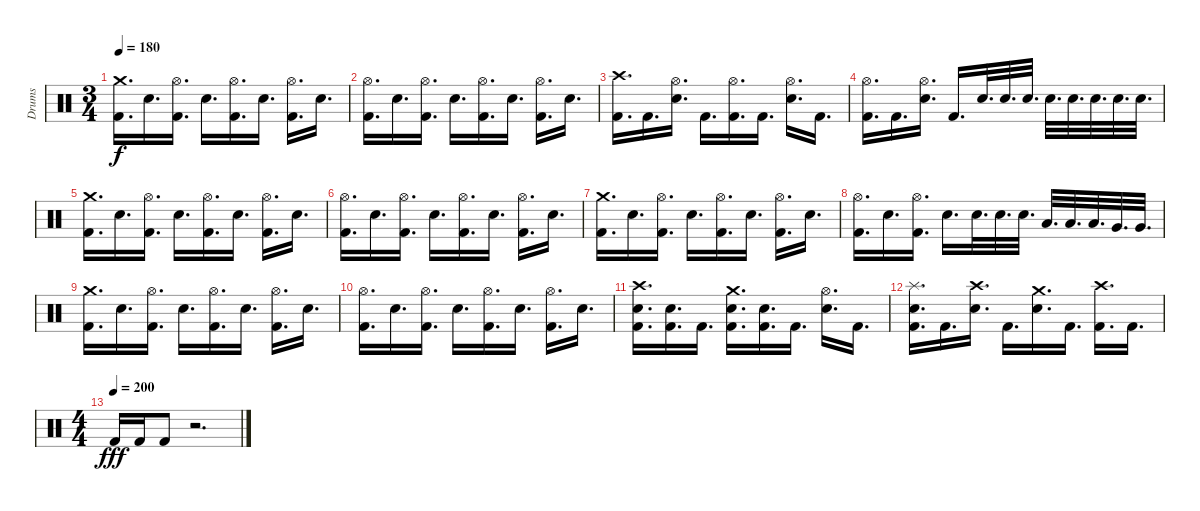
\track ("Drums" "Drums") {instrument percussion}
\staff {score}
\articulation defaults
\ts (3 4)
\tempo 180
\clef neutral
\ks c
("Crash medium (hit)" "Kick (hit) 2").16{d dy f} "Electric Snare (hit)".16{d} ("Hi-Hat (open)" "Kick (hit) 2").16{d} "Electric Snare (hit)".16{d} ("Hi-Hat (open)" "Kick (hit) 2").16{d} "Electric Snare (hit)".16{d} ("Hi-Hat (open)" "Kick (hit) 2").16{d} "Electric Snare (hit)".16{d} |
("Hi-Hat (open)" "Kick (hit) 2").16{d} "Electric Snare (hit)".16{d} ("Hi-Hat (open)" "Kick (hit) 2").16{d} "Electric Snare (hit)".16{d} ("Hi-Hat (open)" "Kick (hit) 2").16{d} "Electric Snare (hit)".16{d} ("Hi-Hat (open)" "Kick (hit) 2").16{d} "Electric Snare (hit)".16{d} |
("Crash high (hit)" "Kick (hit) 2").16{d} "Kick (hit) 2".16{d} ("Hi-Hat (open)" "Electric Snare (hit)").16{d} "Kick (hit) 2".16{d} ("Hi-Hat (open)" "Kick (hit) 2").16{d} "Kick (hit) 2".16{d} ("Hi-Hat (open)" "Electric Snare (hit)").16{d} "Kick (hit) 2".16{d} |
("Hi-Hat (open)" "Kick (hit) 2").16{d} "Kick (hit) 2".16{d} ("Hi-Hat (open)" "Electric Snare (hit)").16{d} "Kick (hit) 2".16{d} "Electric Snare (hit)".32{d} "Electric Snare (hit)".32{d} "Electric Snare (hit)".32{d} "Electric Snare (hit)".32{d} "Electric Snare (hit)".32{d} "Electric Snare (hit)".32{d} "Electric Snare (hit)".32{d} "Electric Snare (hit)".32{d} |
("Crash medium (hit)" "Kick (hit) 2").16{d} "Electric Snare (hit)".16{d} ("Hi-Hat (open)" "Kick (hit) 2").16{d} "Electric Snare (hit)".16{d} ("Hi-Hat (open)" "Kick (hit) 2").16{d} "Electric Snare (hit)".16{d} ("Hi-Hat (open)" "Kick (hit) 2").16{d} "Electric Snare (hit)".16{d} |
("Hi-Hat (open)" "Kick (hit) 2").16{d} "Electric Snare (hit)".16{d} ("Hi-Hat (open)" "Kick (hit) 2").16{d} "Electric Snare (hit)".16{d} ("Hi-Hat (open)" "Kick (hit) 2").16{d} "Electric Snare (hit)".16{d} ("Hi-Hat (open)" "Kick (hit) 2").16{d} "Electric Snare (hit)".16{d} |
("Crash medium (hit)" "Kick (hit) 2").16{d} "Electric Snare (hit)".16{d} ("Hi-Hat (open)" "Kick (hit) 2").16{d} "Electric Snare (hit)".16{d} ("Hi-Hat (open)" "Kick (hit) 2").16{d} "Electric Snare (hit)".16{d} ("Hi-Hat (open)" "Kick (hit) 2").16{d} "Electric Snare (hit)".16{d} |
("Hi-Hat (open)" "Kick (hit) 2").16{d} "Electric Snare (hit)".16{d} ("Hi-Hat (open)" "Kick (hit) 2").16{d} "Electric Snare (hit)".16{d} "Electric Snare (hit)".32{d} "Electric Snare (hit)".32{d} "Electric Snare (hit)".32{d} "Low Tom (hit)".32{d} "Low Tom (hit)".32{d} "Low Tom (hit)".32{d} "Very Low Tom (hit)".32{d} "Very Low Tom (hit)".32{d} |
("Crash medium (hit)" "Kick (hit) 2").16{d} "Electric Snare (hit)".16{d} ("Hi-Hat (open)" "Kick (hit) 2").16{d} "Electric Snare (hit)".16{d} ("Hi-Hat (open)" "Kick (hit) 2").16{d} "Electric Snare (hit)".16{d} ("Hi-Hat (open)" "Kick (hit) 2").16{d} "Electric Snare (hit)".16{d} |
("Hi-Hat (open)" "Kick (hit) 2").16{d} "Electric Snare (hit)".16{d} ("Hi-Hat (open)" "Kick (hit) 2").16{d} "Electric Snare (hit)".16{d} ("Hi-Hat (open)" "Kick (hit) 2").16{d} "Electric Snare (hit)".16{d} ("Hi-Hat (open)" "Kick (hit) 2").16{d} "Electric Snare (hit)".16{d} |
("Crash high (hit)" "Electric Snare (hit)" "Kick (hit) 2").16{d} ("Electric Snare (hit)" "Kick (hit) 2").16{d} "Kick (hit) 2".16{d} ("Crash medium (hit)" "Electric Snare (hit)" "Kick (hit) 2").16{d} ("Electric Snare (hit)" "Kick (hit) 2").16{d} "Kick (hit) 2".16{d} ("Hi-Hat (open)" "Electric Snare (hit)").16{d} "Kick (hit) 2".16{d} |
("Splash (hit)" "Electric Snare (hit)" "Kick (hit) 2").16{d} "Kick (hit) 2".16{d} ("Crash high (hit)" "Electric Snare (hit)").16{d} "Kick (hit) 2".16{d} ("Crash medium (hit)" "Electric Snare (hit)").16{d} "Kick (hit) 2".16{d} ("Crash high (hit)" "Kick (hit) 2").16{d} "Kick (hit) 2".16{d} |
\ts (4 4)
\tempo (200)
"Kick (hit) 2".16{dy fff} "Kick (hit) 2".16 "Kick (hit) 2".8 r.2{d}
